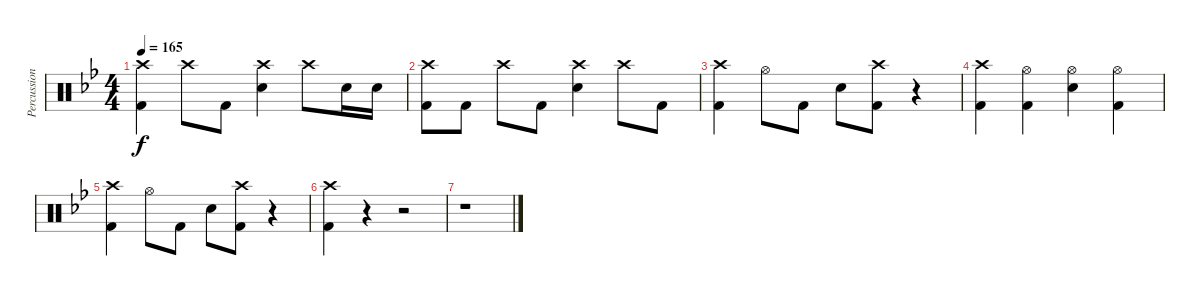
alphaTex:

\track ("Percussion - Aaron" "Percussion") {instrument percussion}
\staff {score}
\articulation defaults
\ts (4 4)
\tempo 165
\clef neutral
\ks gminor
("Crash high (hit)" "Kick (hit) 2").4{dy f} "Crash high (hit)".8 "Kick (hit) 2".8 ("Crash high (hit)" "Electric Snare (hit)").4 "Crash high (hit)".8 "Electric Snare (hit)".16 "Electric Snare (hit)".16 |
("Crash high (hit)" "Kick (hit) 2").8 "Kick (hit) 2".8 "Crash high (hit)".8 "Kick (hit) 2".8 ("Crash high (hit)" "Electric Snare (hit)").4 "Crash high (hit)".8 "Kick (hit) 2".8 |
("Crash high (hit)" "Kick (hit) 2").4 "Hi-Hat (open)".8 "Kick (hit) 2".8 "Electric Snare (hit)".8 ("Crash high (hit)" "Kick (hit) 2").8 r.4 |
("Crash high (hit)" "Kick (hit) 2").4 ("Hi-Hat (open)" "Kick (hit) 2").4 ("Hi-Hat (open)" "Electric Snare (hit)").4 ("Hi-Hat (open)" "Kick (hit) 2").4 |
("Crash high (hit)" "Kick (hit) 2").4 "Hi-Hat (open)".8 "Kick (hit) 2".8 "Electric Snare (hit)".8 ("Crash high (hit)" "Kick (hit) 2").8 r.4 |
("Crash high (hit)" "Kick (hit) 2").4 r.4 r.2 |
r.1
